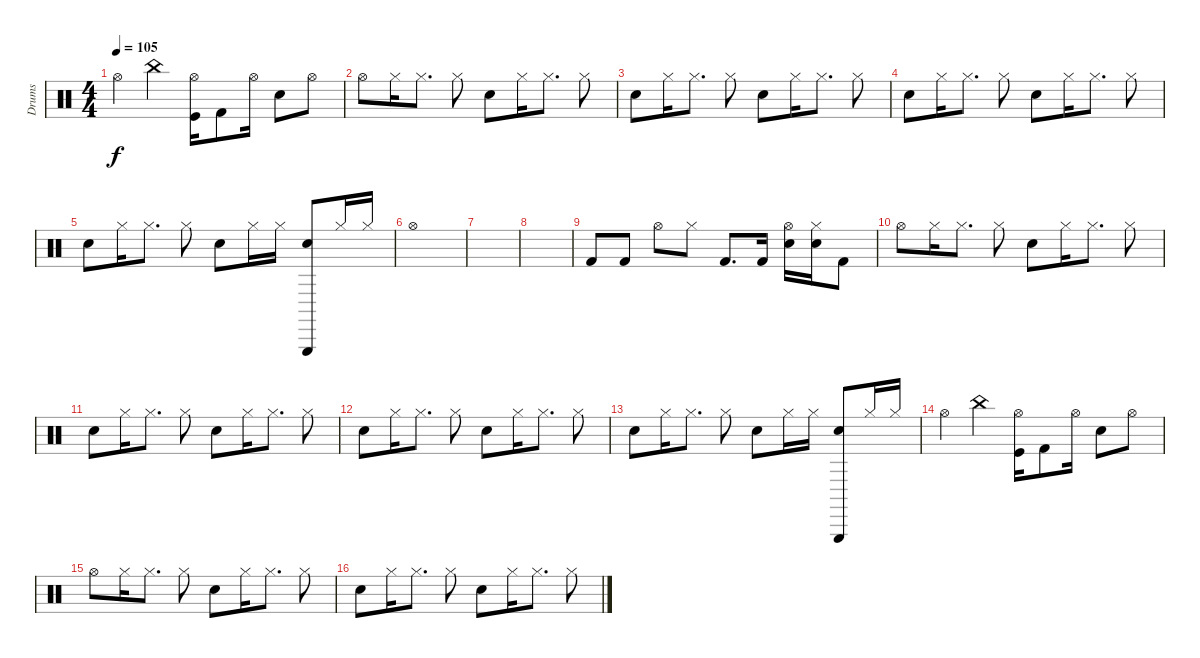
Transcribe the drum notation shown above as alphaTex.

\track ("Drums" "Drums") {instrument percussion}
\staff {score}
\articulation defaults
\ts (4 4)
\tempo 105
\clef neutral
\ks c "Hi-Hat (open)".4{dy f} "China (hit)".4
("Kick (hit)" "Hi-Hat (open)").16 "Kick (hit) 2".8 "Hi-Hat (open)".16 "Electric Snare (hit)".8 "Hi-Hat (open)".8 |
"Hi-Hat (open)".8 "Hi-Hat (closed)".16 "Hi-Hat (closed)".8{d} "Hi-Hat (closed)".8 "Electric Snare (hit)".8 "Hi-Hat (closed)".16 "Hi-Hat (closed)".8{d} "Hi-Hat (closed)".8 |
"Electric Snare (hit)".8 "Hi-Hat (closed)".16 "Hi-Hat (closed)".8{d} "Hi-Hat (closed)".8 "Electric Snare (hit)".8 "Hi-Hat (closed)".16 "Hi-Hat (closed)".8{d} "Hi-Hat (closed)".8 |
"Electric Snare (hit)".8 "Hi-Hat (closed)".16 "Hi-Hat (closed)".8{d} "Hi-Hat (closed)".8 "Electric Snare (hit)".8 "Hi-Hat (closed)".16 "Hi-Hat (closed)".8{d} "Hi-Hat (closed)".8 |
"Electric Snare (hit)".8 "Hi-Hat (closed)".16 "Hi-Hat (closed)".8{d} "Hi-Hat (closed)".8 "Electric Snare (hit)".8 "Hi-Hat (closed)".16 "Hi-Hat (closed)".16 ("Triangle (hit)" "Electric Snare (hit)").8 "Hi-Hat (closed)".16 "Hi-Hat (closed)".16 |
"Hi-Hat (open)".1 |
|
|
"Kick (hit) 2".8 "Kick (hit) 2".8 "Hi-Hat (open)".8 "Hi-Hat (closed)".8 "Kick (hit) 2".8{d} "Kick (hit) 2".16 ("Hi-Hat (open)" "Snare (hit) 2").16 ("Hi-Hat (closed)" "Electric Snare (hit)").16 "Kick (hit) 2".8 |
"Hi-Hat (open)".8 "Hi-Hat (closed)".16 "Hi-Hat (closed)".8{d} "Hi-Hat (closed)".8 "Electric Snare (hit)".8 "Hi-Hat (closed)".16 "Hi-Hat (closed)".8{d} "Hi-Hat (closed)".8 |
"Electric Snare (hit)".8 "Hi-Hat (closed)".16 "Hi-Hat (closed)".8{d} "Hi-Hat (closed)".8 "Electric Snare (hit)".8 "Hi-Hat (closed)".16 "Hi-Hat (closed)".8{d} "Hi-Hat (closed)".8 |
"Electric Snare (hit)".8 "Hi-Hat (closed)".16 "Hi-Hat (closed)".8{d} "Hi-Hat (closed)".8 "Electric Snare (hit)".8 "Hi-Hat (closed)".16 "Hi-Hat (closed)".8{d} "Hi-Hat (closed)".8 |
"Electric Snare (hit)".8 "Hi-Hat (closed)".16 "Hi-Hat (closed)".8{d} "Hi-Hat (closed)".8 "Electric Snare (hit)".8 "Hi-Hat (closed)".16 "Hi-Hat (closed)".16 ("Triangle (hit)" "Electric Snare (hit)").8 "Hi-Hat (closed)".16 "Hi-Hat (closed)".16 |
"Hi-Hat (open)".4 "China (hit)".4 ("Kick (hit)" "Hi-Hat (open)").16 "Kick (hit) 2".8 "Hi-Hat (open)".16 "Electric Snare (hit)".8 "Hi-Hat (open)".8 |
"Hi-Hat (open)".8 "Hi-Hat (closed)".16 "Hi-Hat (closed)".8{d} "Hi-Hat (closed)".8 "Electric Snare (hit)".8 "Hi-Hat (closed)".16 "Hi-Hat (closed)".8{d} "Hi-Hat (closed)".8 |
"Electric Snare (hit)".8 "Hi-Hat (closed)".16 "Hi-Hat (closed)".8{d} "Hi-Hat (closed)".8 "Electric Snare (hit)".8 "Hi-Hat (closed)".16 "Hi-Hat (closed)".8{d} "Hi-Hat (closed)".8
